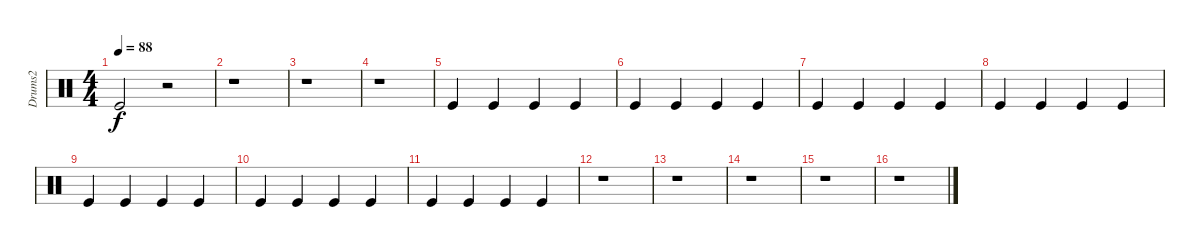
\track ("Drums2" "Drums2") {instrument percussion}
\staff {score}
\articulation defaults
\ts (4 4)
\tempo 88
\clef neutral
\ks c "Kick (hit)".2{dy f}
r.2 |
r.1 |
r.1 |
r.1 |
"Kick (hit)".4 "Kick (hit)".4 "Kick (hit)".4 "Kick (hit)".4 |
"Kick (hit)".4 "Kick (hit)".4 "Kick (hit)".4 "Kick (hit)".4 |
"Kick (hit)".4 "Kick (hit)".4 "Kick (hit)".4 "Kick (hit)".4 |
"Kick (hit)".4 "Kick (hit)".4 "Kick (hit)".4 "Kick (hit)".4 |
"Kick (hit)".4 "Kick (hit)".4 "Kick (hit)".4 "Kick (hit)".4 |
"Kick (hit)".4 "Kick (hit)".4 "Kick (hit)".4 "Kick (hit)".4 |
"Kick (hit)".4 "Kick (hit)".4 "Kick (hit)".4 "Kick (hit)".4 |
r.1 |
r.1 |
r.1 |
r.1 |
r.1
